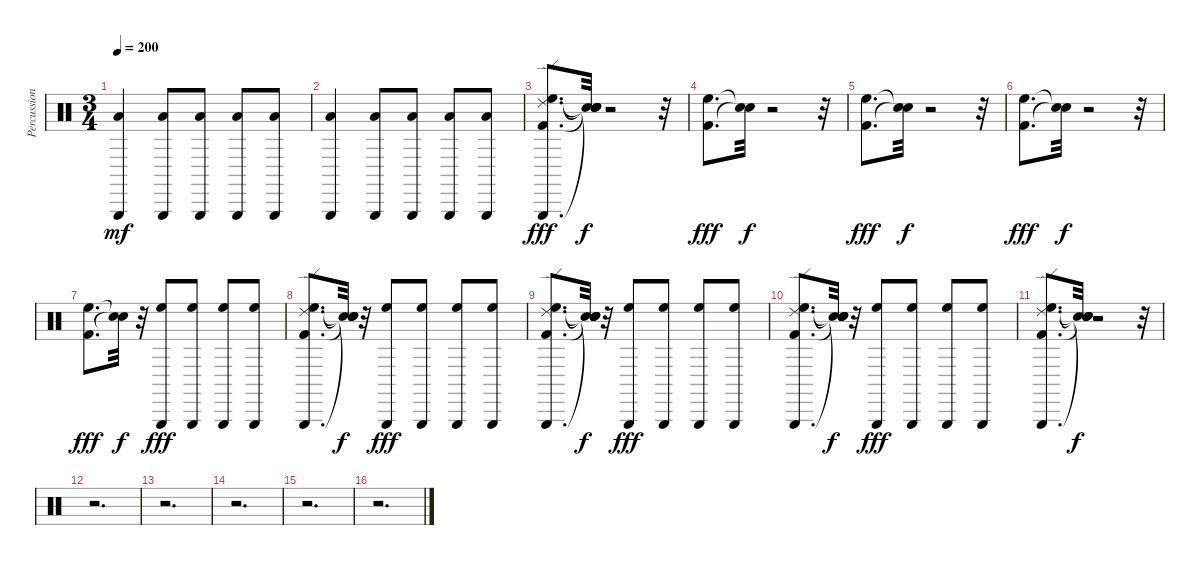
\track ("Percussion." "Percussion") {instrument percussion}
\staff {score}
\articulation defaults
\ts (3 4)
\tempo 200
\clef neutral
\ks c
("Low Tom (hit)" "Triangle (hit)").4{dy mf} ("Low Tom (hit)" "Triangle (hit)").8 ("Low Tom (hit)" "Triangle (hit)").8 ("Low Tom (hit)" "Triangle (hit)").8 ("Low Tom (hit)" "Triangle (hit)").8 |
("Low Tom (hit)" "Triangle (hit)").4 ("Low Tom (hit)" "Triangle (hit)").8 ("Low Tom (hit)" "Triangle (hit)").8 ("Low Tom (hit)" "Triangle (hit)").8 ("Low Tom (hit)" "Triangle (hit)").8 |
("Triangle (hit)" "Ride (edge) 2" "Kick (hit) 2" "High Floor Tom (hit)").8{d dy fff} ("Snare (hit)"{t} "Snare (hit)"{t} "Snare (hit)"{t} "Snare (hit)"{t}).32{dy f} r.2 r.32 |
("High Floor Tom (hit)" "Kick (hit) 2").8{d dy fff} ("Snare (hit)"{t} "Snare (hit)"{t}).32{dy f} r.2 r.32 |
("High Floor Tom (hit)" "Kick (hit) 2").8{d dy fff} ("Snare (hit)"{t} "Snare (hit)"{t}).32{dy f} r.2 r.32 |
("High Floor Tom (hit)" "Kick (hit) 2").8{d dy fff} ("Snare (hit)"{t} "Snare (hit)"{t}).32{dy f} r.2 r.32 |
("Kick (hit) 2" "High Floor Tom (hit)").8{d dy fff} ("Snare (hit)"{t} "Snare (hit)"{t}).32{dy f} r.32 ("Triangle (hit)" "High Floor Tom (hit)").8{dy fff} ("Triangle (hit)" "High Floor Tom (hit)").8 ("Triangle (hit)" "High Floor Tom (hit)").8 ("Triangle (hit)" "High Floor Tom (hit)").8 |
("Triangle (hit)" "Ride (edge) 2" "Kick (hit) 2" "High Floor Tom (hit)").8{d} ("Snare (hit)"{t} "Snare (hit)"{t} "Snare (hit)"{t} "Snare (hit)"{t}).32{dy f} r.32 ("Triangle (hit)" "High Floor Tom (hit)").8{dy fff} ("Triangle (hit)" "High Floor Tom (hit)").8 ("Triangle (hit)" "High Floor Tom (hit)").8 ("Triangle (hit)" "High Floor Tom (hit)").8 |
("Kick (hit) 2" "Ride (edge) 2" "Triangle (hit)" "High Floor Tom (hit)").8{d} ("Snare (hit)"{t} "Snare (hit)"{t} "Snare (hit)"{t} "Snare (hit)"{t}).32{dy f} r.32 ("Triangle (hit)" "High Floor Tom (hit)").8{dy fff} ("Triangle (hit)" "High Floor Tom (hit)").8 ("Triangle (hit)" "High Floor Tom (hit)").8 ("Triangle (hit)" "High Floor Tom (hit)").8 |
("Kick (hit) 2" "Ride (edge) 2" "Triangle (hit)" "High Floor Tom (hit)").8{d} ("Snare (hit)"{t} "Snare (hit)"{t} "Snare (hit)"{t} "Snare (hit)"{t}).32{dy f} r.32 ("Triangle (hit)" "High Floor Tom (hit)").8{dy fff} ("Triangle (hit)" "High Floor Tom (hit)").8 ("Triangle (hit)" "High Floor Tom (hit)").8 ("Triangle (hit)" "High Floor Tom (hit)").8 |
("Kick (hit) 2" "Ride (edge) 2" "Triangle (hit)" "High Floor Tom (hit)").8{d} ("Snare (hit)"{t} "Snare (hit)"{t} "Snare (hit)"{t} "Snare (hit)"{t}).32{dy f} r.2 r.32 |
r.2{d} |
r.2{d} |
r.2{d} |
r.2{d} |
r.2{d}
